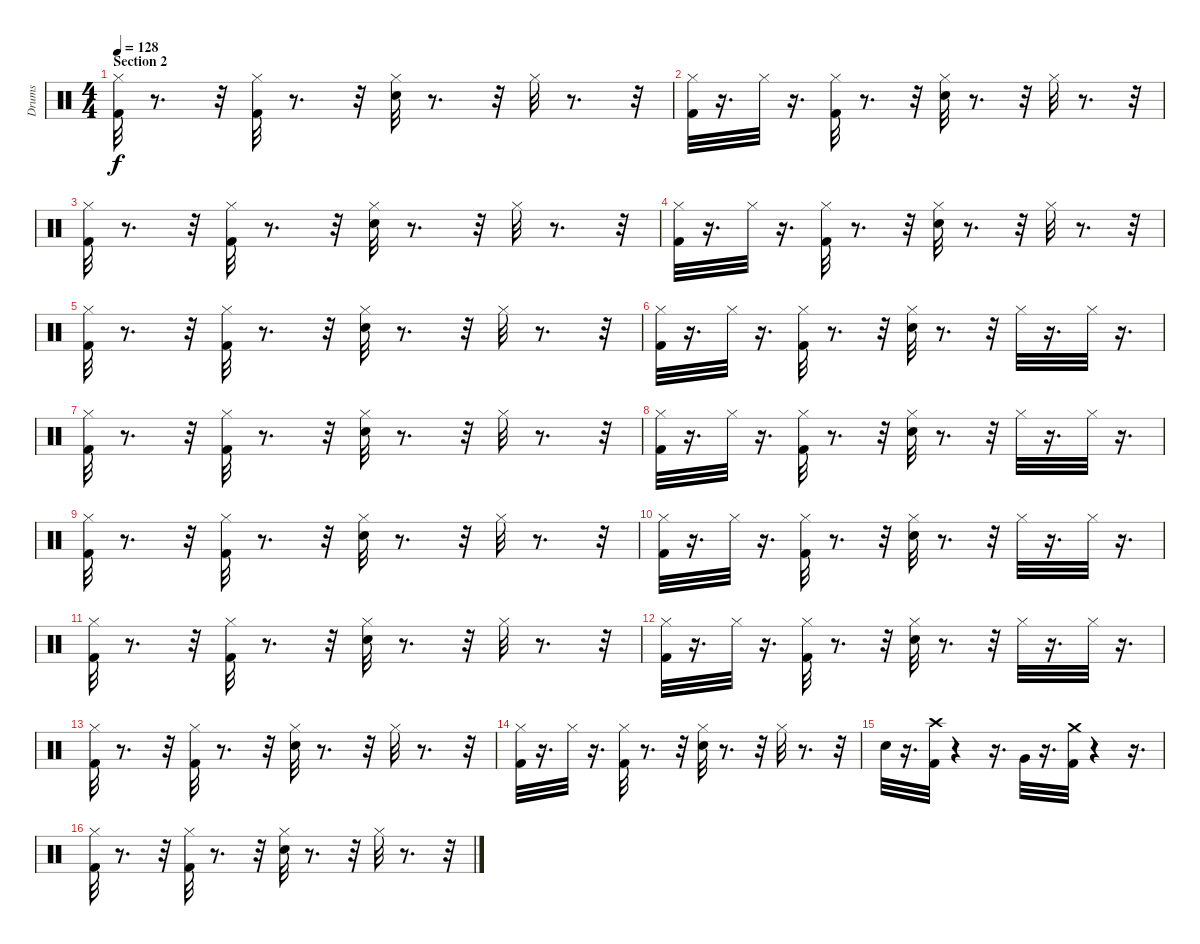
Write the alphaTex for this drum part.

\track ("Drums" "Drums") {instrument percussion}
\staff {score}
\articulation defaults
\ts (4 4)
\section ("" "Section 2")
\tempo 128
\clef neutral
\ks c
("Kick (hit) 2" "Hi-Hat (closed)").32{dy f} r.8{d} r.32 ("Kick (hit) 2" "Hi-Hat (closed)").32 r.8{d} r.32 ("Snare (hit) 2" "Hi-Hat (closed)").32 r.8{d} r.32 "Hi-Hat (closed)".32 r.8{d} r.32 |
("Kick (hit) 2" "Hi-Hat (closed)").32 r.16{d} "Hi-Hat (closed)".32 r.16{d} ("Kick (hit) 2" "Hi-Hat (closed)").32 r.8{d} r.32 ("Snare (hit) 2" "Hi-Hat (closed)").32 r.8{d} r.32 "Hi-Hat (closed)".32 r.8{d} r.32 |
("Kick (hit) 2" "Hi-Hat (closed)").32 r.8{d} r.32 ("Kick (hit) 2" "Hi-Hat (closed)").32 r.8{d} r.32 ("Snare (hit) 2" "Hi-Hat (closed)").32 r.8{d} r.32 "Hi-Hat (closed)".32 r.8{d} r.32 |
("Kick (hit) 2" "Hi-Hat (closed)").32 r.16{d} "Hi-Hat (closed)".32 r.16{d} ("Kick (hit) 2" "Hi-Hat (closed)").32 r.8{d} r.32 ("Snare (hit) 2" "Hi-Hat (closed)").32 r.8{d} r.32 "Hi-Hat (closed)".32 r.8{d} r.32 |
("Kick (hit) 2" "Hi-Hat (closed)").32 r.8{d} r.32 ("Kick (hit) 2" "Hi-Hat (closed)").32 r.8{d} r.32 ("Snare (hit) 2" "Hi-Hat (closed)").32 r.8{d} r.32 "Hi-Hat (closed)".32 r.8{d} r.32 |
("Kick (hit) 2" "Hi-Hat (closed)").32 r.16{d} "Hi-Hat (closed)".32 r.16{d} ("Kick (hit) 2" "Hi-Hat (closed)").32 r.8{d} r.32 ("Snare (hit) 2" "Hi-Hat (closed)").32 r.8{d} r.32 "Hi-Hat (closed)".32 r.16{d} "Hi-Hat (closed)".32 r.16{d} |
("Kick (hit) 2" "Hi-Hat (closed)").32 r.8{d} r.32 ("Kick (hit) 2" "Hi-Hat (closed)").32 r.8{d} r.32 ("Snare (hit) 2" "Hi-Hat (closed)").32 r.8{d} r.32 "Hi-Hat (closed)".32 r.8{d} r.32 |
("Kick (hit) 2" "Hi-Hat (closed)").32 r.16{d} "Hi-Hat (closed)".32 r.16{d} ("Kick (hit) 2" "Hi-Hat (closed)").32 r.8{d} r.32 ("Snare (hit) 2" "Hi-Hat (closed)").32 r.8{d} r.32 "Hi-Hat (closed)".32 r.16{d} "Hi-Hat (closed)".32 r.16{d} |
("Kick (hit) 2" "Hi-Hat (closed)").32 r.8{d} r.32 ("Kick (hit) 2" "Hi-Hat (closed)").32 r.8{d} r.32 ("Snare (hit) 2" "Hi-Hat (closed)").32 r.8{d} r.32 "Hi-Hat (closed)".32 r.8{d} r.32 |
("Kick (hit) 2" "Hi-Hat (closed)").32 r.16{d} "Hi-Hat (closed)".32 r.16{d} ("Kick (hit) 2" "Hi-Hat (closed)").32 r.8{d} r.32 ("Snare (hit) 2" "Hi-Hat (closed)").32 r.8{d} r.32 "Hi-Hat (closed)".32 r.16{d} "Hi-Hat (closed)".32 r.16{d} |
("Kick (hit) 2" "Hi-Hat (closed)").32 r.8{d} r.32 ("Kick (hit) 2" "Hi-Hat (closed)").32 r.8{d} r.32 ("Snare (hit) 2" "Hi-Hat (closed)").32 r.8{d} r.32 "Hi-Hat (closed)".32 r.8{d} r.32 |
("Kick (hit) 2" "Hi-Hat (closed)").32 r.16{d} "Hi-Hat (closed)".32 r.16{d} ("Kick (hit) 2" "Hi-Hat (closed)").32 r.8{d} r.32 ("Snare (hit) 2" "Hi-Hat (closed)").32 r.8{d} r.32 "Hi-Hat (closed)".32 r.16{d} "Hi-Hat (closed)".32 r.16{d} |
("Kick (hit) 2" "Hi-Hat (closed)").32 r.8{d} r.32 ("Kick (hit) 2" "Hi-Hat (closed)").32 r.8{d} r.32 ("Snare (hit) 2" "Hi-Hat (closed)").32 r.8{d} r.32 "Hi-Hat (closed)".32 r.8{d} r.32 |
("Kick (hit) 2" "Hi-Hat (closed)").32 r.16{d} "Hi-Hat (closed)".32 r.16{d} ("Kick (hit) 2" "Hi-Hat (closed)").32 r.8{d} r.32 ("Snare (hit) 2" "Hi-Hat (closed)").32 r.8{d} r.32 "Hi-Hat (closed)".32 r.8{d} r.32 |
"Snare (hit) 2".32 r.16{d} ("Crash high (hit)" "Kick (hit) 2").32 r.4 r.16{d} "Very Low Tom (hit)".32 r.16{d} ("Crash medium (hit)" "Kick (hit) 2").32 r.4 r.16{d} |
("Hi-Hat (closed)" "Kick (hit) 2").32 r.8{d} r.32 ("Hi-Hat (closed)" "Kick (hit) 2").32 r.8{d} r.32 ("Hi-Hat (closed)" "Snare (hit) 2").32 r.8{d} r.32 "Hi-Hat (closed)".32 r.8{d} r.32
